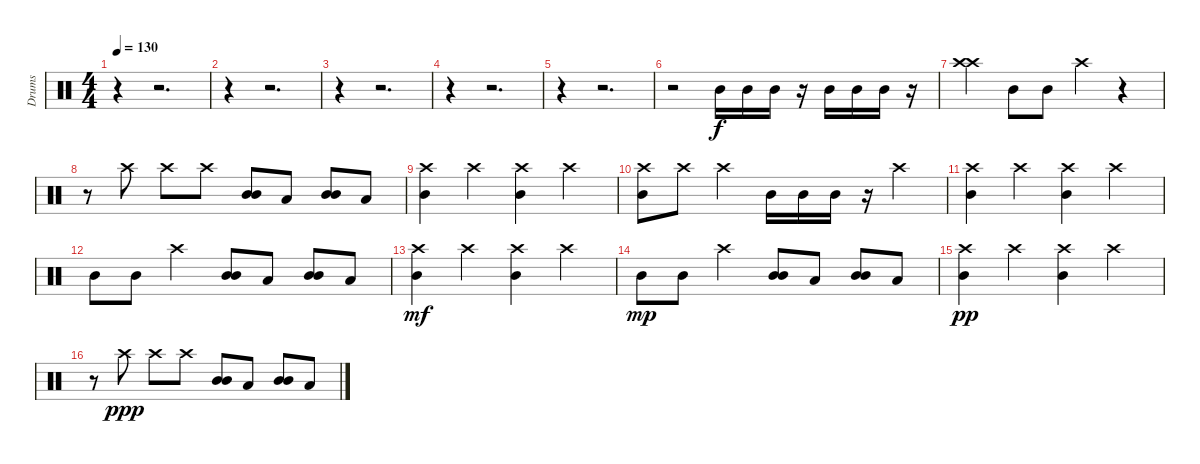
\track ("Drums" "Drums") {instrument percussion}
\staff {score}
\articulation defaults
\ts (4 4)
\tempo 130
\clef neutral
\ks c
r.4{dy f} r.2{d} |
r.4 r.2{d} |
r.4 r.2{d} |
r.4 r.2{d} |
r.4 r.2{d} |
r.2 "Mid Tom (hit)".16 "Mid Tom (hit)".16 "Mid Tom (hit)".16 r.16 "Mid Tom (hit)".16 "Mid Tom (hit)".16 "Mid Tom (hit)".16 r.16 |
("Crash high (hit)" "Crash high (hit)").4 "Mid Tom (hit)".8 "Mid Tom (hit)".8 "Crash high (hit)".4 r.4 |
r.8 "Crash high (hit)".8 "Crash high (hit)".8 "Crash high (hit)".8 ("Mid Tom (hit)" "Mid Tom (hit)").8 "Low Tom (hit)".8 ("Mid Tom (hit)" "Mid Tom (hit)").8 "Low Tom (hit)".8 |
("Crash high (hit)" "Mid Tom (hit)").4 "Crash high (hit)".4 ("Crash high (hit)" "Mid Tom (hit)").4 "Crash high (hit)".4 |
("Crash high (hit)" "Mid Tom (hit)").8 "Crash high (hit)".8 "Crash high (hit)".4 "Mid Tom (hit)".16 "Mid Tom (hit)".16 "Mid Tom (hit)".16 r.16 "Crash high (hit)".4 |
("Crash high (hit)" "Mid Tom (hit)").4 "Crash high (hit)".4 ("Crash high (hit)" "Mid Tom (hit)").4 "Crash high (hit)".4 |
"Mid Tom (hit)".8 "Mid Tom (hit)".8 "Crash high (hit)".4 ("Mid Tom (hit)" "Mid Tom (hit)").8 "Low Tom (hit)".8 ("Mid Tom (hit)" "Mid Tom (hit)").8 "Low Tom (hit)".8 |
("Crash high (hit)" "Mid Tom (hit)").4{dy mf} "Crash high (hit)".4 ("Crash high (hit)" "Mid Tom (hit)").4 "Crash high (hit)".4 |
"Mid Tom (hit)".8{dy mp} "Mid Tom (hit)".8 "Crash high (hit)".4 ("Mid Tom (hit)" "Mid Tom (hit)").8 "Low Tom (hit)".8 ("Mid Tom (hit)" "Mid Tom (hit)").8 "Low Tom (hit)".8 |
("Crash high (hit)" "Mid Tom (hit)").4{dy pp} "Crash high (hit)".4 ("Crash high (hit)" "Mid Tom (hit)").4 "Crash high (hit)".4 |
r.8 "Crash high (hit)".8{dy ppp} "Crash high (hit)".8 "Crash high (hit)".8 ("Mid Tom (hit)" "Mid Tom (hit)").8 "Low Tom (hit)".8 ("Mid Tom (hit)" "Mid Tom (hit)").8 "Low Tom (hit)".8
